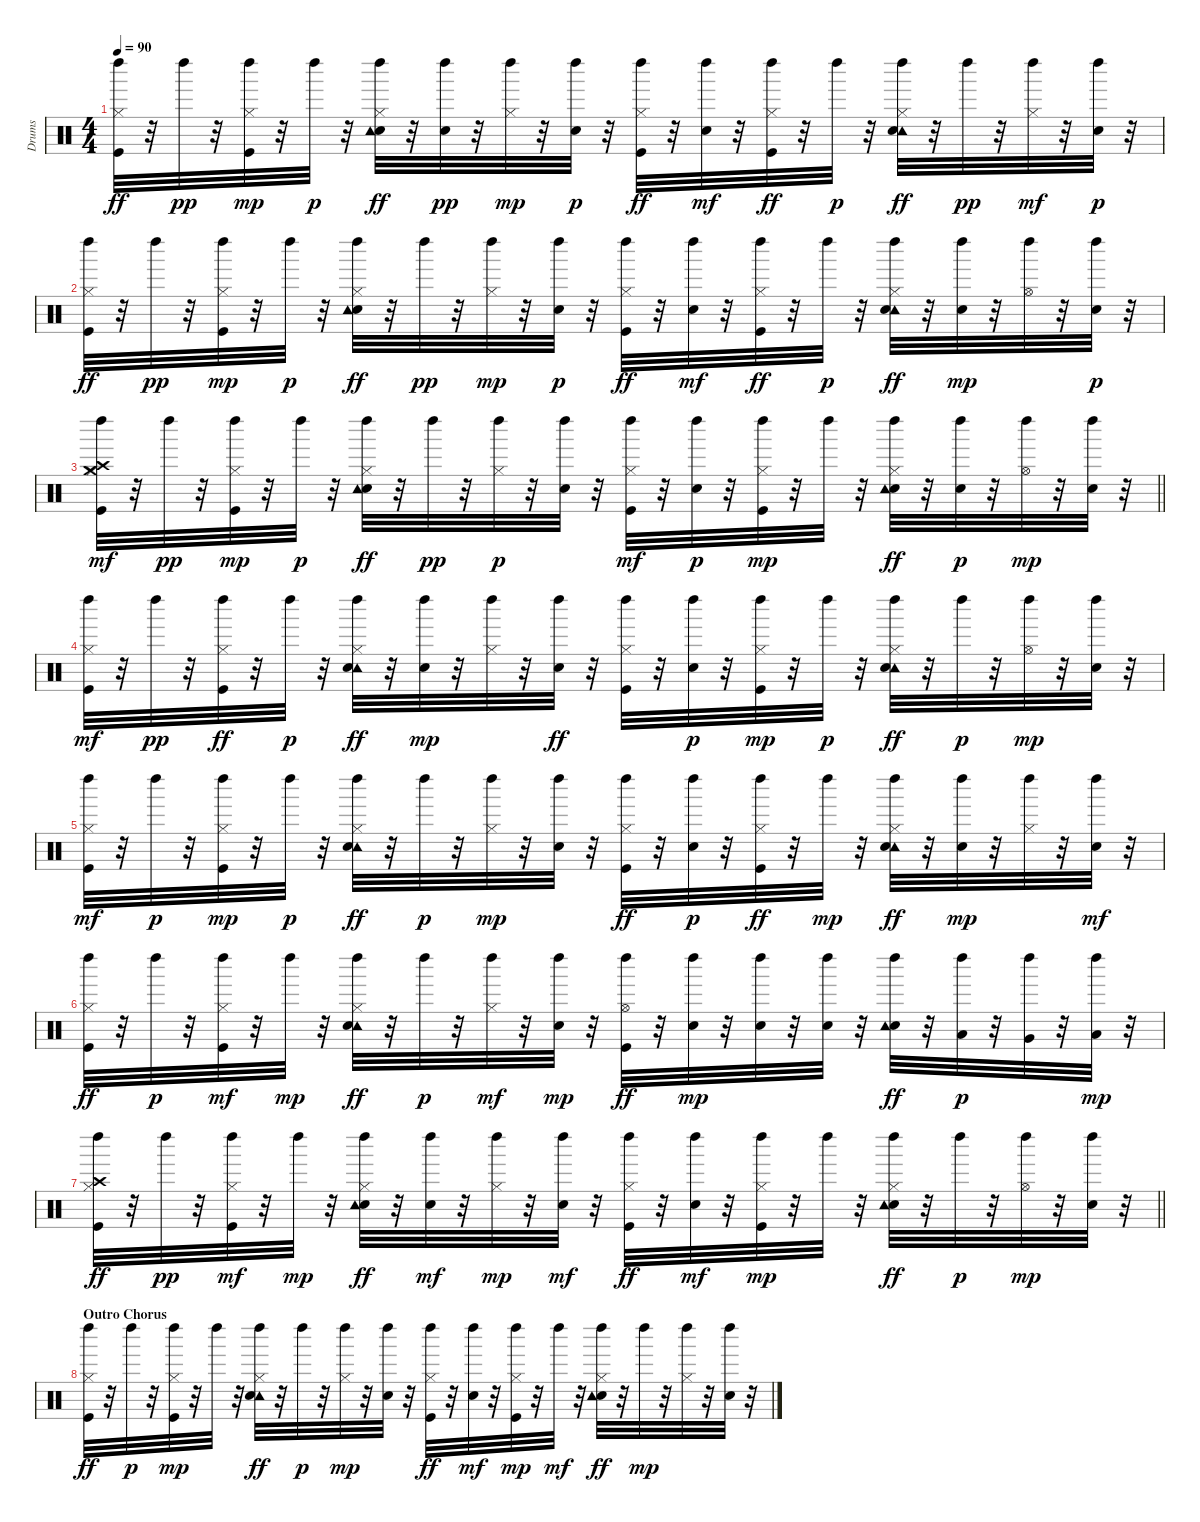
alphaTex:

\track ("Drums" "Drums") {instrument percussion}
\staff {score}
\articulation defaults
\ts (4 4)
\tempo 90
\clef neutral
\ks c
("Hi-Hat (closed)" "Kick (hit)" "Left Maraca (hit)").32{dy ff} r.32 "Left Maraca (hit)".32{dy pp} r.32 ("Hi-Hat (closed)" "Kick (hit)" "Left Maraca (hit)").32{dy mp} r.32 "Left Maraca (hit)".32{dy p} r.32 ("Hi-Hat (closed)" "Electric Snare (hit)" "Tambourine (hit)" "Left Maraca (hit)").32{dy ff} r.32 ("Electric Snare (hit)" "Left Maraca (hit)").32{dy pp} r.32 ("Hi-Hat (closed)" "Left Maraca (hit)").32{dy mp} r.32 ("Electric Snare (hit)" "Left Maraca (hit)").32{dy p} r.32 ("Left Maraca (hit)" "Hi-Hat (closed)" "Kick (hit)").32{dy ff} r.32 ("Left Maraca (hit)" "Electric Snare (hit)").32{dy mf} r.32 ("Left Maraca (hit)" "Hi-Hat (closed)" "Kick (hit)").32{dy ff} r.32 "Left Maraca (hit)".32{dy p} r.32 ("Tambourine (hit)" "Hi-Hat (closed)" "Electric Snare (hit)" "Left Maraca (hit)").32{dy ff} r.32 "Left Maraca (hit)".32{dy pp} r.32 ("Left Maraca (hit)" "Hi-Hat (closed)").32{dy mf} r.32 ("Electric Snare (hit)" "Left Maraca (hit)").32{dy p} r.32 |
("Kick (hit)" "Left Maraca (hit)" "Hi-Hat (closed)").32{dy ff} r.32 "Left Maraca (hit)".32{dy pp} r.32 ("Hi-Hat (closed)" "Kick (hit)" "Left Maraca (hit)").32{dy mp} r.32 "Left Maraca (hit)".32{dy p} r.32 ("Electric Snare (hit)" "Tambourine (hit)" "Left Maraca (hit)" "Hi-Hat (closed)").32{dy ff} r.32 "Left Maraca (hit)".32{dy pp} r.32 ("Hi-Hat (closed)" "Left Maraca (hit)").32{dy mp} r.32 ("Electric Snare (hit)" "Left Maraca (hit)").32{dy p} r.32 ("Left Maraca (hit)" "Hi-Hat (closed)" "Kick (hit)").32{dy ff} r.32 ("Left Maraca (hit)" "Electric Snare (hit)").32{dy mf} r.32 ("Left Maraca (hit)" "Hi-Hat (closed)" "Kick (hit)").32{dy ff} r.32 "Left Maraca (hit)".32{dy p} r.32 ("Tambourine (hit)" "Left Maraca (hit)" "Hi-Hat (closed)" "Electric Snare (hit)").32{dy ff} r.32 ("Left Maraca (hit)" "Electric Snare (hit)").32{dy mp} r.32 ("Hi-Hat (open)" "Left Maraca (hit)").32 r.32 ("Electric Snare (hit)" "Left Maraca (hit)").32{dy p} r.32 |
\barLineRight lightlight
("Crash medium (hit)" "Crash high (hit)" "Hi-Hat (closed)" "Kick (hit)" "Left Maraca (hit)").32{dy mf} r.32 "Left Maraca (hit)".32{dy pp} r.32 ("Hi-Hat (closed)" "Kick (hit)" "Left Maraca (hit)").32{dy mp} r.32 "Left Maraca (hit)".32{dy p} r.32 ("Hi-Hat (closed)" "Electric Snare (hit)" "Tambourine (hit)" "Left Maraca (hit)").32{dy ff} r.32 "Left Maraca (hit)".32{dy pp} r.32 ("Hi-Hat (closed)" "Left Maraca (hit)").32{dy p} r.32 ("Electric Snare (hit)" "Left Maraca (hit)").32 r.32 ("Kick (hit)" "Left Maraca (hit)" "Hi-Hat (closed)").32{dy mf} r.32 ("Electric Snare (hit)" "Left Maraca (hit)").32{dy p} r.32 ("Hi-Hat (closed)" "Kick (hit)" "Left Maraca (hit)").32{dy mp} r.32 "Left Maraca (hit)".32 r.32 ("Hi-Hat (closed)" "Electric Snare (hit)" "Left Maraca (hit)" "Tambourine (hit)").32{dy ff} r.32 ("Electric Snare (hit)" "Left Maraca (hit)").32{dy p} r.32 ("Hi-Hat (open)" "Left Maraca (hit)").32{dy mp} r.32 ("Electric Snare (hit)" "Left Maraca (hit)").32 r.32 |
("Kick (hit)" "Left Maraca (hit)" "Hi-Hat (closed)").32{dy mf} r.32 "Left Maraca (hit)".32{dy pp} r.32 ("Hi-Hat (closed)" "Left Maraca (hit)" "Kick (hit)").32{dy ff} r.32 "Left Maraca (hit)".32{dy p} r.32 ("Tambourine (hit)" "Left Maraca (hit)" "Hi-Hat (closed)" "Electric Snare (hit)").32{dy ff} r.32 ("Left Maraca (hit)" "Electric Snare (hit)").32{dy mp} r.32 ("Hi-Hat (closed)" "Left Maraca (hit)").32 r.32 ("Left Maraca (hit)" "Electric Snare (hit)").32{dy ff} r.32 ("Hi-Hat (closed)" "Left Maraca (hit)" "Kick (hit)").32 r.32 ("Left Maraca (hit)" "Electric Snare (hit)").32{dy p} r.32 ("Hi-Hat (closed)" "Kick (hit)" "Left Maraca (hit)").32{dy mp} r.32 "Left Maraca (hit)".32{dy p} r.32 ("Tambourine (hit)" "Electric Snare (hit)" "Left Maraca (hit)" "Hi-Hat (closed)").32{dy ff} r.32 "Left Maraca (hit)".32{dy p} r.32 ("Hi-Hat (open)" "Left Maraca (hit)").32{dy mp} r.32 ("Electric Snare (hit)" "Left Maraca (hit)").32 r.32 |
("Kick (hit)" "Hi-Hat (closed)" "Left Maraca (hit)").32{dy mf} r.32 "Left Maraca (hit)".32{dy p} r.32 ("Hi-Hat (closed)" "Kick (hit)" "Left Maraca (hit)").32{dy mp} r.32 "Left Maraca (hit)".32{dy p} r.32 ("Tambourine (hit)" "Hi-Hat (closed)" "Electric Snare (hit)" "Left Maraca (hit)").32{dy ff} r.32 "Left Maraca (hit)".32{dy p} r.32 ("Hi-Hat (closed)" "Left Maraca (hit)").32{dy mp} r.32 ("Electric Snare (hit)" "Left Maraca (hit)").32 r.32 ("Kick (hit)" "Hi-Hat (closed)" "Left Maraca (hit)").32{dy ff} r.32 ("Left Maraca (hit)" "Electric Snare (hit)").32{dy p} r.32 ("Left Maraca (hit)" "Hi-Hat (closed)" "Kick (hit)").32{dy ff} r.32 "Left Maraca (hit)".32{dy mp} r.32 ("Tambourine (hit)" "Left Maraca (hit)" "Hi-Hat (closed)" "Electric Snare (hit)").32{dy ff} r.32 ("Left Maraca (hit)" "Electric Snare (hit)").32{dy mp} r.32 ("Hi-Hat (closed)" "Left Maraca (hit)").32 r.32 ("Electric Snare (hit)" "Left Maraca (hit)").32{dy mf} r.32 |
("Hi-Hat (closed)" "Kick (hit)" "Left Maraca (hit)").32{dy ff} r.32 "Left Maraca (hit)".32{dy p} r.32 ("Hi-Hat (closed)" "Kick (hit)" "Left Maraca (hit)").32{dy mf} r.32 "Left Maraca (hit)".32{dy mp} r.32 ("Tambourine (hit)" "Hi-Hat (closed)" "Electric Snare (hit)" "Left Maraca (hit)").32{dy ff} r.32 "Left Maraca (hit)".32{dy p} r.32 ("Hi-Hat (closed)" "Left Maraca (hit)").32{dy mf} r.32 ("Electric Snare (hit)" "Left Maraca (hit)").32{dy mp} r.32 ("Hi-Hat (open)" "Kick (hit)" "Left Maraca (hit)").32{dy ff} r.32 ("Electric Snare (hit)" "Left Maraca (hit)").32{dy mp} r.32 ("Electric Snare (hit)" "Left Maraca (hit)").32 r.32 ("Left Maraca (hit)" "Electric Snare (hit)").32 r.32 ("Electric Snare (hit)" "Tambourine (hit)" "Left Maraca (hit)").32{dy ff} r.32 ("Low Tom (hit)" "Left Maraca (hit)").32{dy p} r.32 ("Very Low Tom (hit)" "Left Maraca (hit)").32 r.32 ("Low Floor Tom (hit)" "Left Maraca (hit)").32{dy mp} r.32 |
\barLineRight lightlight
("Left Maraca (hit)" "Kick (hit)" "Crash high (hit)" "Hi-Hat (closed)").32{dy ff} r.32 "Left Maraca (hit)".32{dy pp} r.32 ("Kick (hit)" "Left Maraca (hit)" "Hi-Hat (closed)").32{dy mf} r.32 "Left Maraca (hit)".32{dy mp} r.32 ("Electric Snare (hit)" "Left Maraca (hit)" "Hi-Hat (closed)" "Tambourine (hit)").32{dy ff} r.32 ("Left Maraca (hit)" "Electric Snare (hit)").32{dy mf} r.32 ("Hi-Hat (closed)" "Left Maraca (hit)").32{dy mp} r.32 ("Electric Snare (hit)" "Left Maraca (hit)").32{dy mf} r.32 ("Hi-Hat (closed)" "Kick (hit)" "Left Maraca (hit)").32{dy ff} r.32 ("Left Maraca (hit)" "Electric Snare (hit)").32{dy mf} r.32 ("Hi-Hat (closed)" "Kick (hit)" "Left Maraca (hit)").32{dy mp} r.32 "Left Maraca (hit)".32 r.32 ("Left Maraca (hit)" "Hi-Hat (closed)" "Electric Snare (hit)" "Tambourine (hit)").32{dy ff} r.32 "Left Maraca (hit)".32{dy p} r.32 ("Hi-Hat (open)" "Left Maraca (hit)").32{dy mp} r.32 ("Electric Snare (hit)" "Left Maraca (hit)").32 r.32 |
\section ("" "Outro Chorus")
("Hi-Hat (closed)" "Kick (hit)" "Left Maraca (hit)").32{dy ff} r.32 "Left Maraca (hit)".32{dy p} r.32 ("Hi-Hat (closed)" "Kick (hit)" "Left Maraca (hit)").32{dy mp} r.32 "Left Maraca (hit)".32 r.32 ("Tambourine (hit)" "Hi-Hat (closed)" "Electric Snare (hit)" "Left Maraca (hit)").32{dy ff} r.32 "Left Maraca (hit)".32{dy p} r.32 ("Hi-Hat (closed)" "Left Maraca (hit)").32{dy mp} r.32 ("Electric Snare (hit)" "Left Maraca (hit)").32 r.32 ("Hi-Hat (closed)" "Kick (hit)" "Left Maraca (hit)").32{dy ff} r.32 ("Left Maraca (hit)" "Electric Snare (hit)").32{dy mf} r.32 ("Hi-Hat (closed)" "Kick (hit)" "Left Maraca (hit)").32{dy mp} r.32 "Left Maraca (hit)".32{dy mf} r.32 ("Hi-Hat (closed)" "Electric Snare (hit)" "Tambourine (hit)" "Left Maraca (hit)").32{dy ff} r.32 "Left Maraca (hit)".32{dy mp} r.32 ("Hi-Hat (closed)" "Left Maraca (hit)").32 r.32 ("Left Maraca (hit)" "Electric Snare (hit)").32 r.32
